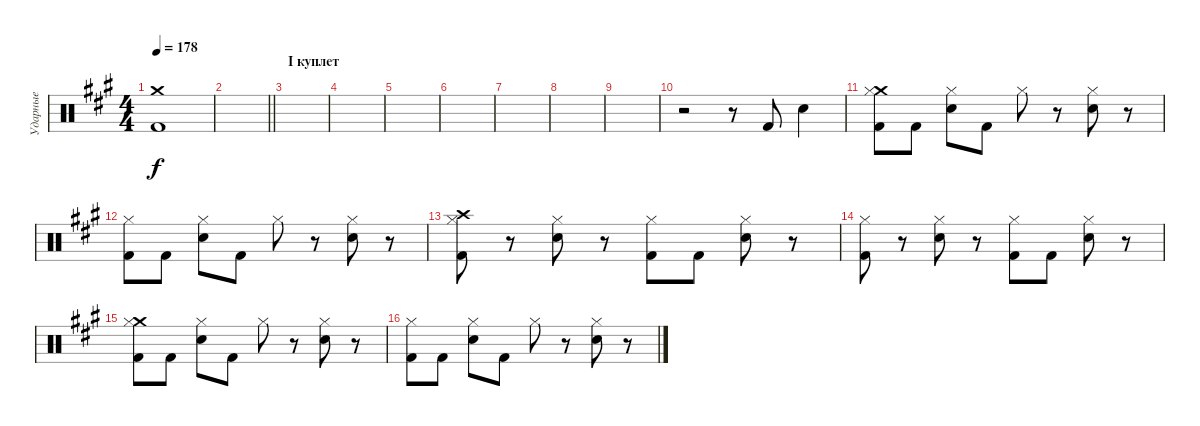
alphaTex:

\track ("Ударные" "Ударные") {instrument percussion}
\staff {score}
\articulation defaults
\ts (4 4)
\section ("" "")
\tempo 178
\clef neutral
\ks f#minor
("Crash medium (hit)" "Kick (hit) 2").1{dy f} |
\barLineRight lightlight
|
\section ("" "I куплет")
|
|
|
|
|
|
|
r.2 r.8 "Kick (hit) 2".8 "Electric Snare (hit)".4 |
("Crash medium (hit)" "Kick (hit) 2" "Hi-Hat (closed)").8 "Kick (hit) 2".8 ("Electric Snare (hit)" "Hi-Hat (closed)").8 "Kick (hit) 2".8 "Hi-Hat (closed)".8 r.8 ("Electric Snare (hit)" "Hi-Hat (closed)").8 r.8 |
("Kick (hit) 2" "Hi-Hat (closed)").8 "Kick (hit) 2".8 ("Electric Snare (hit)" "Hi-Hat (closed)").8 "Kick (hit) 2".8 "Hi-Hat (closed)".8 r.8 ("Electric Snare (hit)" "Hi-Hat (closed)").8 r.8 |
("Crash high (hit)" "Kick (hit) 2" "Hi-Hat (closed)").8 r.8 ("Electric Snare (hit)" "Hi-Hat (closed)").8 r.8 ("Kick (hit) 2" "Hi-Hat (closed)").8 "Kick (hit) 2".8 ("Electric Snare (hit)" "Hi-Hat (closed)").8 r.8 |
("Kick (hit) 2" "Hi-Hat (closed)").8 r.8 ("Electric Snare (hit)" "Hi-Hat (closed)").8 r.8 ("Kick (hit) 2" "Hi-Hat (closed)").8 "Kick (hit) 2".8 ("Electric Snare (hit)" "Hi-Hat (closed)").8 r.8 |
("Crash medium (hit)" "Kick (hit) 2" "Hi-Hat (closed)").8 "Kick (hit) 2".8 ("Electric Snare (hit)" "Hi-Hat (closed)").8 "Kick (hit) 2".8 "Hi-Hat (closed)".8 r.8 ("Electric Snare (hit)" "Hi-Hat (closed)").8 r.8 |
("Kick (hit) 2" "Hi-Hat (closed)").8 "Kick (hit) 2".8 ("Electric Snare (hit)" "Hi-Hat (closed)").8 "Kick (hit) 2".8 "Hi-Hat (closed)".8 r.8 ("Electric Snare (hit)" "Hi-Hat (closed)").8 r.8
